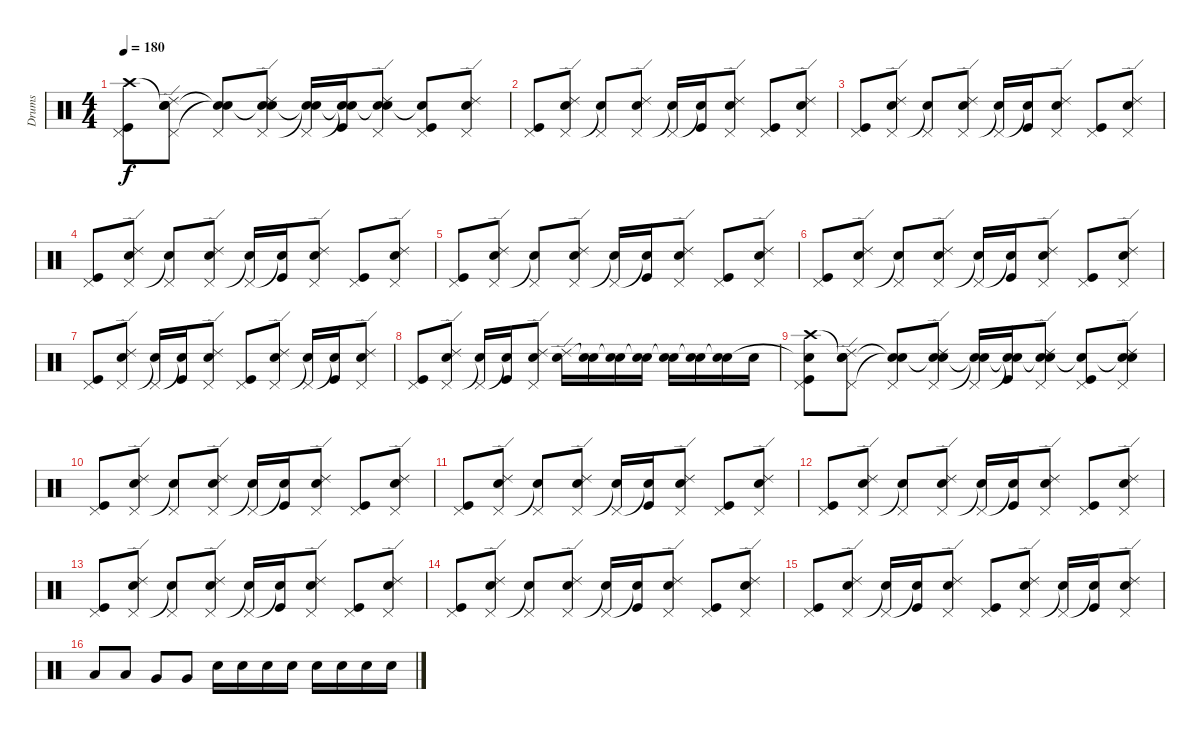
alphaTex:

\track ("Drums" "Drums") {instrument percussion}
\staff {score}
\articulation defaults
\ts (4 4)
\tempo 180
\clef neutral
\ks c
("Crash high (hit)" "Pedal Hi-Hat (hit)" "Kick (hit)").8{dy f} ("Snare (hit)"{t} "Ride (edge) 2" "Pedal Hi-Hat (hit)" "Electric Snare (hit)").8 ("Snare (hit)"{t} "Pedal Hi-Hat (hit)" "Snare (hit)"{t}).8 ("Snare (hit)"{t} "Ride (edge) 2" "Pedal Hi-Hat (hit)" "Electric Snare (hit)").8 ("Snare (hit)"{t} "Pedal Hi-Hat (hit)" "Snare (hit)"{t}).16 ("Snare (hit)"{t} "Snare (hit)"{t} "Kick (hit)").16 ("Snare (hit)"{t} "Ride (edge) 2" "Pedal Hi-Hat (hit)" "Electric Snare (hit)").8 ("Snare (hit)"{t} "Pedal Hi-Hat (hit)" "Kick (hit)").8 ("Ride (edge) 2" "Pedal Hi-Hat (hit)" "Electric Snare (hit)").8 |
("Pedal Hi-Hat (hit)" "Kick (hit)").8 ("Ride (edge) 2" "Pedal Hi-Hat (hit)" "Electric Snare (hit)").8 ("Pedal Hi-Hat (hit)" "Snare (hit)"{t}).8 ("Ride (edge) 2" "Pedal Hi-Hat (hit)" "Electric Snare (hit)").8 ("Pedal Hi-Hat (hit)" "Snare (hit)"{t}).16 ("Snare (hit)"{t} "Kick (hit)").16 ("Ride (edge) 2" "Pedal Hi-Hat (hit)" "Electric Snare (hit)").8 ("Pedal Hi-Hat (hit)" "Kick (hit)").8 ("Ride (edge) 2" "Pedal Hi-Hat (hit)" "Electric Snare (hit)").8 |
("Pedal Hi-Hat (hit)" "Kick (hit)").8 ("Ride (edge) 2" "Pedal Hi-Hat (hit)" "Electric Snare (hit)").8 ("Pedal Hi-Hat (hit)" "Snare (hit)"{t}).8 ("Ride (edge) 2" "Pedal Hi-Hat (hit)" "Electric Snare (hit)").8 ("Pedal Hi-Hat (hit)" "Snare (hit)"{t}).16 ("Snare (hit)"{t} "Kick (hit)").16 ("Ride (edge) 2" "Pedal Hi-Hat (hit)" "Electric Snare (hit)").8 ("Pedal Hi-Hat (hit)" "Kick (hit)").8 ("Ride (edge) 2" "Pedal Hi-Hat (hit)" "Electric Snare (hit)").8 |
("Pedal Hi-Hat (hit)" "Kick (hit)").8 ("Ride (edge) 2" "Pedal Hi-Hat (hit)" "Electric Snare (hit)").8 ("Pedal Hi-Hat (hit)" "Snare (hit)"{t}).8 ("Ride (edge) 2" "Pedal Hi-Hat (hit)" "Electric Snare (hit)").8 ("Pedal Hi-Hat (hit)" "Snare (hit)"{t}).16 ("Snare (hit)"{t} "Kick (hit)").16 ("Ride (edge) 2" "Pedal Hi-Hat (hit)" "Electric Snare (hit)").8 ("Pedal Hi-Hat (hit)" "Kick (hit)").8 ("Ride (edge) 2" "Pedal Hi-Hat (hit)" "Electric Snare (hit)").8 |
("Pedal Hi-Hat (hit)" "Kick (hit)").8 ("Ride (edge) 2" "Pedal Hi-Hat (hit)" "Electric Snare (hit)").8 ("Pedal Hi-Hat (hit)" "Snare (hit)"{t}).8 ("Ride (edge) 2" "Pedal Hi-Hat (hit)" "Electric Snare (hit)").8 ("Pedal Hi-Hat (hit)" "Snare (hit)"{t}).16 ("Snare (hit)"{t} "Kick (hit)").16 ("Ride (edge) 2" "Pedal Hi-Hat (hit)" "Electric Snare (hit)").8 ("Pedal Hi-Hat (hit)" "Kick (hit)").8 ("Ride (edge) 2" "Pedal Hi-Hat (hit)" "Electric Snare (hit)").8 |
("Pedal Hi-Hat (hit)" "Kick (hit)").8 ("Ride (edge) 2" "Pedal Hi-Hat (hit)" "Electric Snare (hit)").8 ("Pedal Hi-Hat (hit)" "Snare (hit)"{t}).8 ("Ride (edge) 2" "Pedal Hi-Hat (hit)" "Electric Snare (hit)").8 ("Pedal Hi-Hat (hit)" "Snare (hit)"{t}).16 ("Snare (hit)"{t} "Kick (hit)").16 ("Ride (edge) 2" "Pedal Hi-Hat (hit)" "Electric Snare (hit)").8 ("Pedal Hi-Hat (hit)" "Kick (hit)").8 ("Ride (edge) 2" "Pedal Hi-Hat (hit)" "Electric Snare (hit)").8 |
("Pedal Hi-Hat (hit)" "Kick (hit)").8 ("Ride (edge) 2" "Pedal Hi-Hat (hit)" "Electric Snare (hit)").8 ("Pedal Hi-Hat (hit)" "Snare (hit)"{t}).16 ("Snare (hit)"{t} "Kick (hit)").16 ("Ride (edge) 2" "Pedal Hi-Hat (hit)" "Electric Snare (hit)").8 ("Pedal Hi-Hat (hit)" "Kick (hit)").8 ("Ride (edge) 2" "Pedal Hi-Hat (hit)" "Electric Snare (hit)").8 ("Pedal Hi-Hat (hit)" "Snare (hit)"{t}).16 ("Snare (hit)"{t} "Kick (hit)").16 ("Ride (edge) 2" "Pedal Hi-Hat (hit)" "Electric Snare (hit)").8 |
("Pedal Hi-Hat (hit)" "Kick (hit)").8 ("Ride (edge) 2" "Pedal Hi-Hat (hit)" "Electric Snare (hit)").8 ("Pedal Hi-Hat (hit)" "Snare (hit)"{t}).16 ("Snare (hit)"{t} "Kick (hit)").16 ("Ride (edge) 2" "Pedal Hi-Hat (hit)" "Electric Snare (hit)").8 ("Ride (edge) 2" "Electric Snare (hit)").16 ("Snare (hit)"{t} "Electric Snare (hit)").16 ("Snare (hit)"{t} "Electric Snare (hit)").16 ("Snare (hit)"{t} "Electric Snare (hit)").16 ("Snare (hit)"{t} "Electric Snare (hit)").16 ("Snare (hit)"{t} "Electric Snare (hit)").16 ("Snare (hit)"{t} "Electric Snare (hit)").16 "Electric Snare (hit)".16 |
("Crash high (hit)" "Snare (hit)"{t} "Pedal Hi-Hat (hit)" "Kick (hit)").8 ("Snare (hit)"{t} "Ride (edge) 2" "Pedal Hi-Hat (hit)" "Electric Snare (hit)").8 ("Snare (hit)"{t} "Pedal Hi-Hat (hit)" "Snare (hit)"{t}).8 ("Snare (hit)"{t} "Ride (edge) 2" "Pedal Hi-Hat (hit)" "Electric Snare (hit)").8 ("Snare (hit)"{t} "Pedal Hi-Hat (hit)" "Snare (hit)"{t}).16 ("Snare (hit)"{t} "Snare (hit)"{t} "Kick (hit)").16 ("Snare (hit)"{t} "Ride (edge) 2" "Pedal Hi-Hat (hit)" "Electric Snare (hit)").8 ("Snare (hit)"{t} "Pedal Hi-Hat (hit)" "Kick (hit)").8 ("Snare (hit)"{t} "Ride (edge) 2" "Pedal Hi-Hat (hit)" "Electric Snare (hit)").8 |
("Pedal Hi-Hat (hit)" "Kick (hit)").8 ("Ride (edge) 2" "Pedal Hi-Hat (hit)" "Electric Snare (hit)").8 ("Pedal Hi-Hat (hit)" "Snare (hit)"{t}).8 ("Ride (edge) 2" "Pedal Hi-Hat (hit)" "Electric Snare (hit)").8 ("Pedal Hi-Hat (hit)" "Snare (hit)"{t}).16 ("Snare (hit)"{t} "Kick (hit)").16 ("Ride (edge) 2" "Pedal Hi-Hat (hit)" "Electric Snare (hit)").8 ("Pedal Hi-Hat (hit)" "Kick (hit)").8 ("Ride (edge) 2" "Pedal Hi-Hat (hit)" "Electric Snare (hit)").8 |
("Pedal Hi-Hat (hit)" "Kick (hit)").8 ("Ride (edge) 2" "Pedal Hi-Hat (hit)" "Electric Snare (hit)").8 ("Pedal Hi-Hat (hit)" "Snare (hit)"{t}).8 ("Ride (edge) 2" "Pedal Hi-Hat (hit)" "Electric Snare (hit)").8 ("Pedal Hi-Hat (hit)" "Snare (hit)"{t}).16 ("Snare (hit)"{t} "Kick (hit)").16 ("Ride (edge) 2" "Pedal Hi-Hat (hit)" "Electric Snare (hit)").8 ("Pedal Hi-Hat (hit)" "Kick (hit)").8 ("Ride (edge) 2" "Pedal Hi-Hat (hit)" "Electric Snare (hit)").8 |
("Pedal Hi-Hat (hit)" "Kick (hit)").8 ("Ride (edge) 2" "Pedal Hi-Hat (hit)" "Electric Snare (hit)").8 ("Pedal Hi-Hat (hit)" "Snare (hit)"{t}).8 ("Ride (edge) 2" "Pedal Hi-Hat (hit)" "Electric Snare (hit)").8 ("Pedal Hi-Hat (hit)" "Snare (hit)"{t}).16 ("Snare (hit)"{t} "Kick (hit)").16 ("Ride (edge) 2" "Pedal Hi-Hat (hit)" "Electric Snare (hit)").8 ("Pedal Hi-Hat (hit)" "Kick (hit)").8 ("Ride (edge) 2" "Pedal Hi-Hat (hit)" "Electric Snare (hit)").8 |
("Pedal Hi-Hat (hit)" "Kick (hit)").8 ("Ride (edge) 2" "Pedal Hi-Hat (hit)" "Electric Snare (hit)").8 ("Pedal Hi-Hat (hit)" "Snare (hit)"{t}).8 ("Ride (edge) 2" "Pedal Hi-Hat (hit)" "Electric Snare (hit)").8 ("Pedal Hi-Hat (hit)" "Snare (hit)"{t}).16 ("Snare (hit)"{t} "Kick (hit)").16 ("Ride (edge) 2" "Pedal Hi-Hat (hit)" "Electric Snare (hit)").8 ("Pedal Hi-Hat (hit)" "Kick (hit)").8 ("Ride (edge) 2" "Pedal Hi-Hat (hit)" "Electric Snare (hit)").8 |
("Pedal Hi-Hat (hit)" "Kick (hit)").8 ("Ride (edge) 2" "Pedal Hi-Hat (hit)" "Electric Snare (hit)").8 ("Pedal Hi-Hat (hit)" "Snare (hit)"{t}).8 ("Ride (edge) 2" "Pedal Hi-Hat (hit)" "Electric Snare (hit)").8 ("Pedal Hi-Hat (hit)" "Snare (hit)"{t}).16 ("Snare (hit)"{t} "Kick (hit)").16 ("Ride (edge) 2" "Pedal Hi-Hat (hit)" "Electric Snare (hit)").8 ("Pedal Hi-Hat (hit)" "Kick (hit)").8 ("Ride (edge) 2" "Pedal Hi-Hat (hit)" "Electric Snare (hit)").8 |
("Pedal Hi-Hat (hit)" "Kick (hit)").8 ("Ride (edge) 2" "Pedal Hi-Hat (hit)" "Electric Snare (hit)").8 ("Pedal Hi-Hat (hit)" "Snare (hit)"{t}).16 ("Snare (hit)"{t} "Kick (hit)").16 ("Ride (edge) 2" "Pedal Hi-Hat (hit)" "Electric Snare (hit)").8 ("Pedal Hi-Hat (hit)" "Kick (hit)").8 ("Ride (edge) 2" "Pedal Hi-Hat (hit)" "Electric Snare (hit)").8 ("Pedal Hi-Hat (hit)" "Snare (hit)"{t}).16 ("Snare (hit)"{t} "Kick (hit)").16 ("Ride (edge) 2" "Pedal Hi-Hat (hit)" "Electric Snare (hit)").8 |
"Low Floor Tom (hit)".8 "Low Floor Tom (hit)".8 "Very Low Tom (hit)".8 "Very Low Tom (hit)".8 "Electric Snare (hit)".16 "Electric Snare (hit)".16 "Electric Snare (hit)".16 "Electric Snare (hit)".16 "Electric Snare (hit)".16 "Electric Snare (hit)".16 "Electric Snare (hit)".16 "Electric Snare (hit)".16
